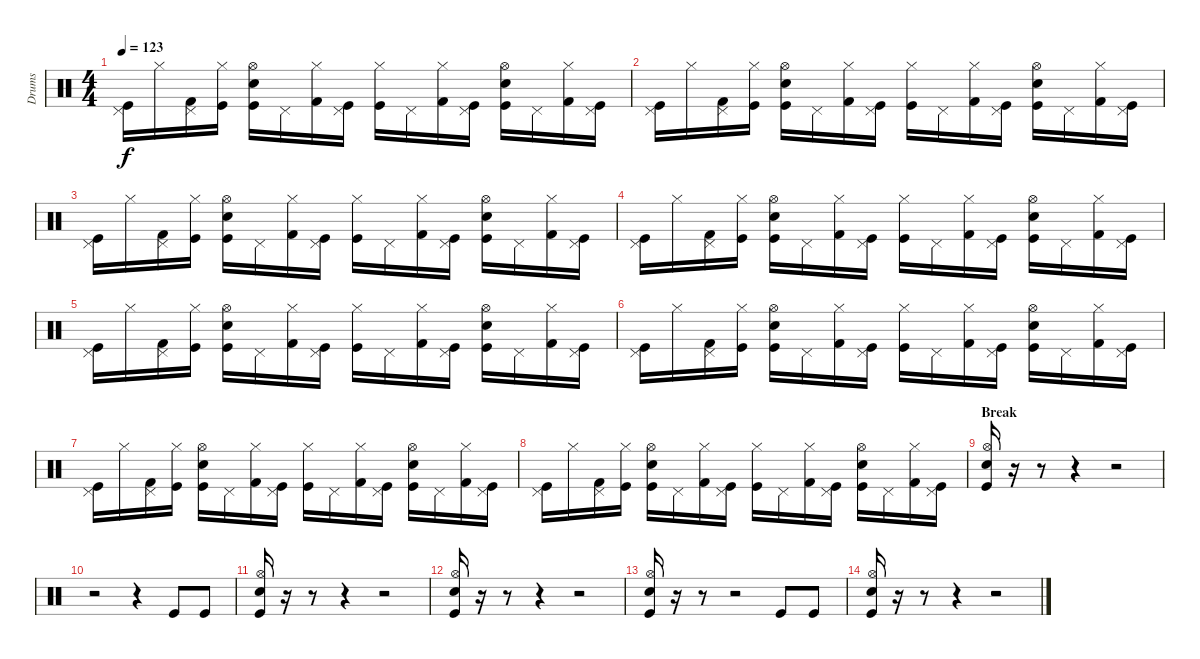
\track ("Drums" "Drums") {instrument percussion}
\staff {score}
\articulation defaults
\ts (4 4)
\tempo 123
\clef neutral
\ks c
("Pedal Hi-Hat (hit)" "Kick (hit)").16{dy f} "Hi-Hat (closed)".16 ("Pedal Hi-Hat (hit)" "Kick (hit) 2").16 ("Hi-Hat (closed)" "Kick (hit)").16 ("Hi-Hat (open)" "Snare (hit) 2" "Kick (hit)").16 "Pedal Hi-Hat (hit)".16 ("Hi-Hat (closed)" "Kick (hit) 2").16 ("Pedal Hi-Hat (hit)" "Kick (hit)").16 ("Hi-Hat (closed)" "Kick (hit)").16 "Pedal Hi-Hat (hit)".16 ("Hi-Hat (closed)" "Kick (hit) 2").16 ("Pedal Hi-Hat (hit)" "Kick (hit)").16 ("Hi-Hat (open)" "Snare (hit) 2" "Kick (hit)").16 "Pedal Hi-Hat (hit)".16 ("Hi-Hat (closed)" "Kick (hit) 2").16 ("Pedal Hi-Hat (hit)" "Kick (hit)").16 |
("Pedal Hi-Hat (hit)" "Kick (hit)").16 "Hi-Hat (closed)".16 ("Pedal Hi-Hat (hit)" "Kick (hit) 2").16 ("Hi-Hat (closed)" "Kick (hit)").16 ("Hi-Hat (open)" "Snare (hit) 2" "Kick (hit)").16 "Pedal Hi-Hat (hit)".16 ("Hi-Hat (closed)" "Kick (hit) 2").16 ("Pedal Hi-Hat (hit)" "Kick (hit)").16 ("Hi-Hat (closed)" "Kick (hit)").16 "Pedal Hi-Hat (hit)".16 ("Hi-Hat (closed)" "Kick (hit) 2").16 ("Pedal Hi-Hat (hit)" "Kick (hit)").16 ("Hi-Hat (open)" "Snare (hit) 2" "Kick (hit)").16 "Pedal Hi-Hat (hit)".16 ("Hi-Hat (closed)" "Kick (hit) 2").16 ("Pedal Hi-Hat (hit)" "Kick (hit)").16 |
("Pedal Hi-Hat (hit)" "Kick (hit)").16 "Hi-Hat (closed)".16 ("Pedal Hi-Hat (hit)" "Kick (hit) 2").16 ("Hi-Hat (closed)" "Kick (hit)").16 ("Hi-Hat (open)" "Snare (hit) 2" "Kick (hit)").16 "Pedal Hi-Hat (hit)".16 ("Hi-Hat (closed)" "Kick (hit) 2").16 ("Pedal Hi-Hat (hit)" "Kick (hit)").16 ("Hi-Hat (closed)" "Kick (hit)").16 "Pedal Hi-Hat (hit)".16 ("Hi-Hat (closed)" "Kick (hit) 2").16 ("Pedal Hi-Hat (hit)" "Kick (hit)").16 ("Hi-Hat (open)" "Snare (hit) 2" "Kick (hit)").16 "Pedal Hi-Hat (hit)".16 ("Hi-Hat (closed)" "Kick (hit) 2").16 ("Pedal Hi-Hat (hit)" "Kick (hit)").16 |
("Pedal Hi-Hat (hit)" "Kick (hit)").16 "Hi-Hat (closed)".16 ("Pedal Hi-Hat (hit)" "Kick (hit) 2").16 ("Hi-Hat (closed)" "Kick (hit)").16 ("Hi-Hat (open)" "Snare (hit) 2" "Kick (hit)").16 "Pedal Hi-Hat (hit)".16 ("Hi-Hat (closed)" "Kick (hit) 2").16 ("Pedal Hi-Hat (hit)" "Kick (hit)").16 ("Hi-Hat (closed)" "Kick (hit)").16 "Pedal Hi-Hat (hit)".16 ("Hi-Hat (closed)" "Kick (hit) 2").16 ("Pedal Hi-Hat (hit)" "Kick (hit)").16 ("Hi-Hat (open)" "Snare (hit) 2" "Kick (hit)").16 "Pedal Hi-Hat (hit)".16 ("Hi-Hat (closed)" "Kick (hit) 2").16 ("Pedal Hi-Hat (hit)" "Kick (hit)").16 |
("Pedal Hi-Hat (hit)" "Kick (hit)").16 "Hi-Hat (closed)".16 ("Pedal Hi-Hat (hit)" "Kick (hit) 2").16 ("Hi-Hat (closed)" "Kick (hit)").16 ("Hi-Hat (open)" "Snare (hit) 2" "Kick (hit)").16 "Pedal Hi-Hat (hit)".16 ("Hi-Hat (closed)" "Kick (hit) 2").16 ("Pedal Hi-Hat (hit)" "Kick (hit)").16 ("Hi-Hat (closed)" "Kick (hit)").16 "Pedal Hi-Hat (hit)".16 ("Hi-Hat (closed)" "Kick (hit) 2").16 ("Pedal Hi-Hat (hit)" "Kick (hit)").16 ("Hi-Hat (open)" "Snare (hit) 2" "Kick (hit)").16 "Pedal Hi-Hat (hit)".16 ("Hi-Hat (closed)" "Kick (hit) 2").16 ("Pedal Hi-Hat (hit)" "Kick (hit)").16 |
("Pedal Hi-Hat (hit)" "Kick (hit)").16 "Hi-Hat (closed)".16 ("Pedal Hi-Hat (hit)" "Kick (hit) 2").16 ("Hi-Hat (closed)" "Kick (hit)").16 ("Hi-Hat (open)" "Snare (hit) 2" "Kick (hit)").16 "Pedal Hi-Hat (hit)".16 ("Hi-Hat (closed)" "Kick (hit) 2").16 ("Pedal Hi-Hat (hit)" "Kick (hit)").16 ("Hi-Hat (closed)" "Kick (hit)").16 "Pedal Hi-Hat (hit)".16 ("Hi-Hat (closed)" "Kick (hit) 2").16 ("Pedal Hi-Hat (hit)" "Kick (hit)").16 ("Hi-Hat (open)" "Snare (hit) 2" "Kick (hit)").16 "Pedal Hi-Hat (hit)".16 ("Hi-Hat (closed)" "Kick (hit) 2").16 ("Pedal Hi-Hat (hit)" "Kick (hit)").16 |
("Pedal Hi-Hat (hit)" "Kick (hit)").16 "Hi-Hat (closed)".16 ("Pedal Hi-Hat (hit)" "Kick (hit) 2").16 ("Hi-Hat (closed)" "Kick (hit)").16 ("Hi-Hat (open)" "Snare (hit) 2" "Kick (hit)").16 "Pedal Hi-Hat (hit)".16 ("Hi-Hat (closed)" "Kick (hit) 2").16 ("Pedal Hi-Hat (hit)" "Kick (hit)").16 ("Hi-Hat (closed)" "Kick (hit)").16 "Pedal Hi-Hat (hit)".16 ("Hi-Hat (closed)" "Kick (hit) 2").16 ("Pedal Hi-Hat (hit)" "Kick (hit)").16 ("Hi-Hat (open)" "Snare (hit) 2" "Kick (hit)").16 "Pedal Hi-Hat (hit)".16 ("Hi-Hat (closed)" "Kick (hit) 2").16 ("Pedal Hi-Hat (hit)" "Kick (hit)").16 |
("Pedal Hi-Hat (hit)" "Kick (hit)").16 "Hi-Hat (closed)".16 ("Pedal Hi-Hat (hit)" "Kick (hit) 2").16 ("Hi-Hat (closed)" "Kick (hit)").16 ("Hi-Hat (open)" "Snare (hit) 2" "Kick (hit)").16 "Pedal Hi-Hat (hit)".16 ("Hi-Hat (closed)" "Kick (hit) 2").16 ("Pedal Hi-Hat (hit)" "Kick (hit)").16 ("Hi-Hat (closed)" "Kick (hit)").16 "Pedal Hi-Hat (hit)".16 ("Hi-Hat (closed)" "Kick (hit) 2").16 ("Pedal Hi-Hat (hit)" "Kick (hit)").16 ("Hi-Hat (open)" "Snare (hit) 2" "Kick (hit)").16 "Pedal Hi-Hat (hit)".16 ("Hi-Hat (closed)" "Kick (hit) 2").16 ("Pedal Hi-Hat (hit)" "Kick (hit)").16 |
\section ("" "Break")
("Hi-Hat (open)" "Snare (hit) 2" "Kick (hit)").16 r.16 r.8 r.4 r.2 |
r.2 r.4 "Kick (hit)".8 "Kick (hit)".8 |
("Hi-Hat (open)" "Snare (hit) 2" "Kick (hit)").16 r.16 r.8 r.4 r.2 |
("Hi-Hat (open)" "Snare (hit) 2" "Kick (hit)").16 r.16 r.8 r.4 r.2 |
("Hi-Hat (open)" "Snare (hit) 2" "Kick (hit)").16 r.16 r.8 r.2 "Kick (hit)".8 "Kick (hit)".8 |
("Hi-Hat (open)" "Snare (hit) 2" "Kick (hit)").16 r.16 r.8 r.4 r.2
